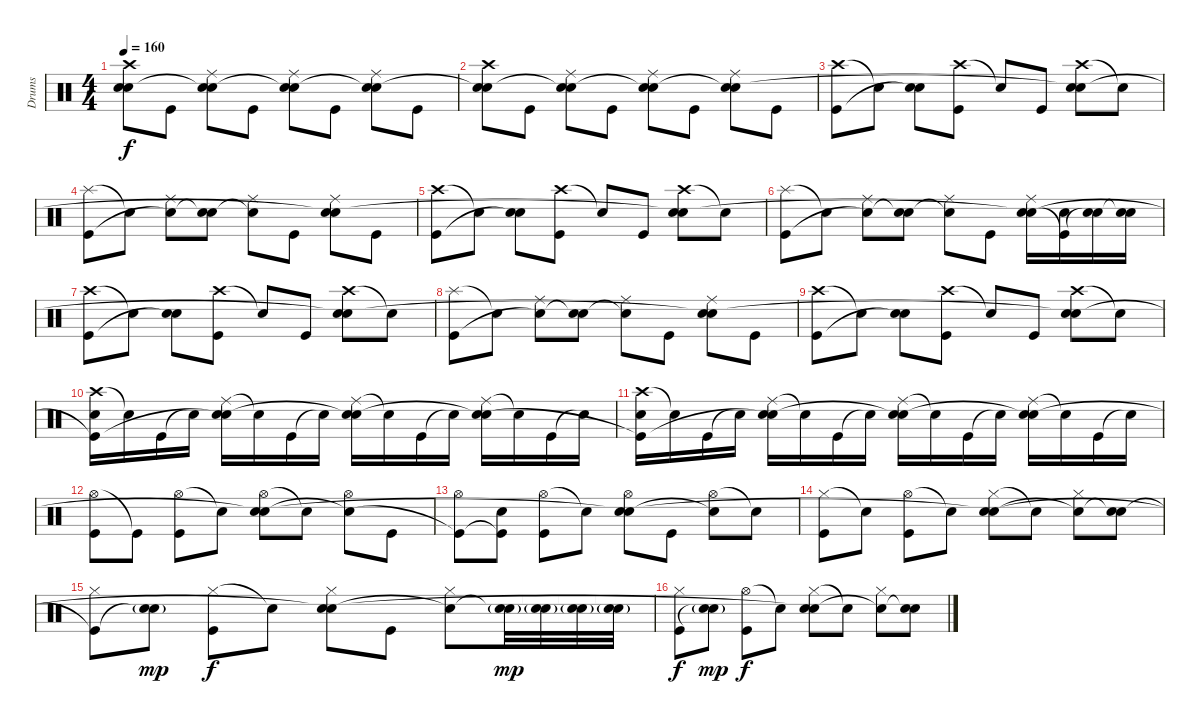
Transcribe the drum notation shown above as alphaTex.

\track ("Drums" "Drums") {instrument percussion}
\staff {score}
\articulation defaults
\ts (4 4)
\tempo 160
\clef neutral
\ks c
("Crash high (hit)" "Electric Snare (hit)" "Snare (hit)"{t}).8{dy f} "Kick (hit)".8 ("Ride (middle)" "Electric Snare (hit)" "Snare (hit)"{t}).8 "Kick (hit)".8 ("Ride (middle)" "Electric Snare (hit)" "Snare (hit)"{t}).8 "Kick (hit)".8 ("Ride (middle)" "Electric Snare (hit)" "Snare (hit)"{t}).8 "Kick (hit)".8 |
("Crash high (hit)" "Electric Snare (hit)" "Snare (hit)"{t}).8 "Kick (hit)".8 ("Ride (middle)" "Electric Snare (hit)" "Snare (hit)"{t}).8 "Kick (hit)".8 ("Ride (middle)" "Electric Snare (hit)" "Snare (hit)"{t}).8 "Kick (hit)".8 ("Ride (middle)" "Electric Snare (hit)" "Snare (hit)"{t}).8 "Kick (hit)".8 |
("Crash high (hit)" "Kick (hit)").8 "Snare (hit)"{t}.8 ("Electric Snare (hit)" "Snare (hit)"{t}).8 ("Crash high (hit)" "Kick (hit)").8 "Snare (hit)"{t}.8 "Kick (hit)".8 ("Crash high (hit)" "Electric Snare (hit)" "Snare (hit)"{t}).8 "Snare (hit)"{t}.8 |
("Splash (hit)" "Kick (hit)").8 "Snare (hit)"{t}.8 ("Ride (middle)" "Snare (hit)"{t}).8 ("Electric Snare (hit)" "Snare (hit)"{t}).8 ("Ride (middle)" "Snare (hit)"{t}).8 "Kick (hit)".8 ("Ride (middle)" "Electric Snare (hit)" "Snare (hit)"{t}).8 "Kick (hit)".8 |
("Crash high (hit)" "Kick (hit)").8 "Snare (hit)"{t}.8 ("Electric Snare (hit)" "Snare (hit)"{t}).8 ("Crash high (hit)" "Kick (hit)").8 "Snare (hit)"{t}.8 "Kick (hit)".8 ("Crash high (hit)" "Electric Snare (hit)" "Snare (hit)"{t}).8 "Snare (hit)"{t}.8 |
("Splash (hit)" "Kick (hit)").8 "Snare (hit)"{t}.8 ("Ride (middle)" "Snare (hit)"{t}).8 ("Electric Snare (hit)" "Snare (hit)"{t}).8 ("Ride (middle)" "Snare (hit)"{t}).8 "Kick (hit)".8 ("Ride (middle)" "Electric Snare (hit)" "Snare (hit)"{t}).16 ("Electric Snare (hit)" "Kick (hit)"{t}).16 ("Electric Snare (hit)" "Snare (hit)"{t}).16 ("Electric Snare (hit)" "Snare (hit)"{t}).16 |
("Crash high (hit)" "Kick (hit)").8 "Snare (hit)"{t}.8 ("Electric Snare (hit)" "Snare (hit)"{t}).8 ("Crash high (hit)" "Kick (hit)").8 "Snare (hit)"{t}.8 "Kick (hit)".8 ("Crash high (hit)" "Electric Snare (hit)" "Snare (hit)"{t}).8 "Snare (hit)"{t}.8 |
("Splash (hit)" "Kick (hit)").8 "Snare (hit)"{t}.8 ("Ride (middle)" "Snare (hit)"{t}).8 ("Electric Snare (hit)" "Snare (hit)"{t}).8 ("Ride (middle)" "Snare (hit)"{t}).8 "Kick (hit)".8 ("Ride (middle)" "Electric Snare (hit)" "Snare (hit)"{t}).8 "Kick (hit)".8 |
("Crash high (hit)" "Kick (hit)").8 "Snare (hit)"{t}.8 ("Electric Snare (hit)" "Snare (hit)"{t}).8 ("Crash high (hit)" "Kick (hit)").8 "Snare (hit)"{t}.8 "Kick (hit)".8 ("Crash high (hit)" "Electric Snare (hit)" "Snare (hit)"{t}).8 "Snare (hit)"{t}.8 |
("Crash high (hit)" "Electric Snare (hit)" "Kick (hit)"{t}).16 "Snare (hit)"{t}.16 "Kick (hit)".16 "Snare (hit)"{t}.16 ("Ride (middle)" "Electric Snare (hit)" "Snare (hit)"{t}).16 "Snare (hit)"{t}.16 "Kick (hit)".16 "Snare (hit)"{t}.16 ("Ride (middle)" "Electric Snare (hit)" "Snare (hit)"{t}).16 "Snare (hit)"{t}.16 "Kick (hit)".16 "Snare (hit)"{t}.16 ("Ride (middle)" "Electric Snare (hit)" "Snare (hit)"{t}).16 "Snare (hit)"{t}.16 "Kick (hit)".16 "Snare (hit)"{t}.16 |
("Crash high (hit)" "Electric Snare (hit)" "Kick (hit)"{t}).16 "Snare (hit)"{t}.16 "Kick (hit)".16 "Snare (hit)"{t}.16 ("Ride (middle)" "Electric Snare (hit)" "Snare (hit)"{t}).16 "Snare (hit)"{t}.16 "Kick (hit)".16 "Snare (hit)"{t}.16 ("Ride (middle)" "Electric Snare (hit)" "Snare (hit)"{t}).16 "Snare (hit)"{t}.16 "Kick (hit)".16 "Snare (hit)"{t}.16 ("Ride (middle)" "Electric Snare (hit)" "Snare (hit)"{t}).16 "Snare (hit)"{t}.16 "Kick (hit)".16 "Snare (hit)"{t}.16 |
("Hi-Hat (open)" "Kick (hit)").8 "Kick (hit)"{t}.8 ("Hi-Hat (open)" "Kick (hit)").8 "Snare (hit)"{t}.8 ("Hi-Hat (open)" "Electric Snare (hit)" "Snare (hit)"{t}).8 "Snare (hit)"{t}.8 ("Hi-Hat (open)" "Snare (hit)"{t}).8 "Kick (hit)".8 |
("Hi-Hat (open)" "Kick (hit)"{t}).8 ("Electric Snare (hit)" "Kick (hit)"{t}).8 ("Hi-Hat (open)" "Kick (hit)").8 "Snare (hit)"{t}.8 ("Hi-Hat (open)" "Electric Snare (hit)" "Snare (hit)"{t}).8 "Kick (hit)".8 ("Hi-Hat (open)" "Snare (hit)"{t}).8 "Snare (hit)"{t}.8 |
("Hi-Hat (closed)" "Kick (hit)").8 "Snare (hit)"{t}.8 ("Hi-Hat (open)" "Kick (hit)").8 "Snare (hit)"{t}.8 ("Hi-Hat (closed)" "Electric Snare (hit)" "Snare (hit)"{t}).8 "Snare (hit)"{t}.8 ("Hi-Hat (closed)" "Snare (hit)"{t}).8 ("Electric Snare (hit)" "Snare (hit)"{t}).8 |
("Hi-Hat (closed)" "Kick (hit)"{t}).8 ("Electric Snare (hit)"{g} "Snare (hit)"{t}).8{dy mp} ("Hi-Hat (closed)" "Kick (hit)").8{dy f} "Snare (hit)"{t}.8 ("Hi-Hat (closed)" "Electric Snare (hit)" "Snare (hit)"{t}).8 "Kick (hit)".8 ("Hi-Hat (closed)" "Snare (hit)"{t}).8 ("Electric Snare (hit)"{g} "Snare (hit)"{t}).32{dy mp} ("Electric Snare (hit)"{g} "Snare (hit)"{t}).32 ("Electric Snare (hit)"{g} "Snare (hit)"{t}).32 ("Electric Snare (hit)"{g} "Snare (hit)"{t}).32 |
("Hi-Hat (closed)" "Kick (hit)").8{dy f} ("Electric Snare (hit)"{g} "Snare (hit)"{t}).8{dy mp} ("Hi-Hat (open)" "Kick (hit)").8{dy f} "Snare (hit)"{t}.8 ("Hi-Hat (closed)" "Electric Snare (hit)" "Snare (hit)"{t}).8 "Snare (hit)"{t}.8 ("Hi-Hat (closed)" "Snare (hit)"{t}).8 ("Electric Snare (hit)" "Snare (hit)"{t}).8
